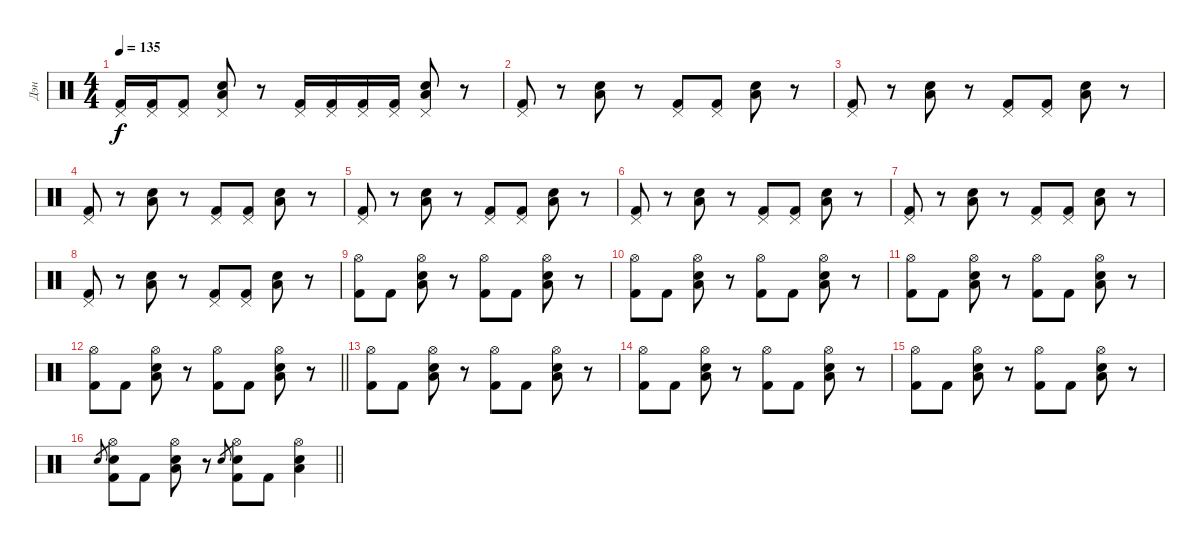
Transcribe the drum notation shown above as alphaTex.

\track ("Дэн" "Дэн") {instrument percussion}
\staff {score}
\articulation defaults
\ts (4 4)
\tempo 135
\clef neutral
\ks c
("Pedal Hi-Hat (hit)" "Kick (hit) 2").16{dy f} ("Pedal Hi-Hat (hit)" "Kick (hit) 2").16 ("Pedal Hi-Hat (hit)" "Kick (hit) 2").8 ("Snare (hit) 2" "Low Tom (hit)" "Pedal Hi-Hat (hit)").8 r.8 ("Pedal Hi-Hat (hit)" "Kick (hit) 2").16 ("Pedal Hi-Hat (hit)" "Kick (hit) 2").16 ("Pedal Hi-Hat (hit)" "Kick (hit) 2").16 ("Pedal Hi-Hat (hit)" "Kick (hit) 2").16 ("Snare (hit) 2" "Low Tom (hit)" "Pedal Hi-Hat (hit)").8 r.8 |
("Pedal Hi-Hat (hit)" "Kick (hit) 2").8 r.8 ("Snare (hit) 2" "Low Tom (hit)").8 r.8 ("Pedal Hi-Hat (hit)" "Kick (hit) 2").8 ("Pedal Hi-Hat (hit)" "Kick (hit) 2").8 ("Snare (hit) 2" "Low Tom (hit)").8 r.8 |
("Pedal Hi-Hat (hit)" "Kick (hit) 2").8 r.8 ("Snare (hit) 2" "Low Tom (hit)").8 r.8 ("Pedal Hi-Hat (hit)" "Kick (hit) 2").8 ("Pedal Hi-Hat (hit)" "Kick (hit) 2").8 ("Snare (hit) 2" "Low Tom (hit)").8 r.8 |
("Pedal Hi-Hat (hit)" "Kick (hit) 2").8 r.8 ("Snare (hit) 2" "Low Tom (hit)").8 r.8 ("Pedal Hi-Hat (hit)" "Kick (hit) 2").8 ("Pedal Hi-Hat (hit)" "Kick (hit) 2").8 ("Snare (hit) 2" "Low Tom (hit)").8 r.8 |
("Pedal Hi-Hat (hit)" "Kick (hit) 2").8 r.8 ("Snare (hit) 2" "Low Tom (hit)").8 r.8 ("Pedal Hi-Hat (hit)" "Kick (hit) 2").8 ("Pedal Hi-Hat (hit)" "Kick (hit) 2").8 ("Snare (hit) 2" "Low Tom (hit)").8 r.8 |
("Pedal Hi-Hat (hit)" "Kick (hit) 2").8 r.8 ("Snare (hit) 2" "Low Tom (hit)").8 r.8 ("Pedal Hi-Hat (hit)" "Kick (hit) 2").8 ("Pedal Hi-Hat (hit)" "Kick (hit) 2").8 ("Snare (hit) 2" "Low Tom (hit)").8 r.8 |
("Pedal Hi-Hat (hit)" "Kick (hit) 2").8 r.8 ("Snare (hit) 2" "Low Tom (hit)").8 r.8 ("Pedal Hi-Hat (hit)" "Kick (hit) 2").8 ("Pedal Hi-Hat (hit)" "Kick (hit) 2").8 ("Snare (hit) 2" "Low Tom (hit)").8 r.8 |
("Pedal Hi-Hat (hit)" "Kick (hit) 2").8 r.8 ("Snare (hit) 2" "Low Tom (hit)").8 r.8 ("Pedal Hi-Hat (hit)" "Kick (hit) 2").8 ("Pedal Hi-Hat (hit)" "Kick (hit) 2").8 ("Snare (hit) 2" "Low Tom (hit)").8 r.8 |
("Hi-Hat (open)" "Kick (hit) 2").8 "Kick (hit) 2".8 ("Snare (hit) 2" "Low Tom (hit)" "Hi-Hat (open)").8 r.8 ("Hi-Hat (open)" "Kick (hit) 2").8 "Kick (hit) 2".8 ("Snare (hit) 2" "Low Tom (hit)" "Hi-Hat (open)").8 r.8 |
("Hi-Hat (open)" "Kick (hit) 2").8 "Kick (hit) 2".8 ("Snare (hit) 2" "Low Tom (hit)" "Hi-Hat (open)").8 r.8 ("Hi-Hat (open)" "Kick (hit) 2").8 "Kick (hit) 2".8 ("Snare (hit) 2" "Low Tom (hit)" "Hi-Hat (open)").8 r.8 |
("Hi-Hat (open)" "Kick (hit) 2").8 "Kick (hit) 2".8 ("Snare (hit) 2" "Low Tom (hit)" "Hi-Hat (open)").8 r.8 ("Hi-Hat (open)" "Kick (hit) 2").8 "Kick (hit) 2".8 ("Snare (hit) 2" "Low Tom (hit)" "Hi-Hat (open)").8 r.8 |
\barLineRight lightlight
("Hi-Hat (open)" "Kick (hit) 2").8 "Kick (hit) 2".8 ("Snare (hit) 2" "Low Tom (hit)" "Hi-Hat (open)").8 r.8 ("Hi-Hat (open)" "Kick (hit) 2").8 "Kick (hit) 2".8 ("Snare (hit) 2" "Low Tom (hit)" "Hi-Hat (open)").8 r.8 |
("Hi-Hat (open)" "Kick (hit) 2").8 "Kick (hit) 2".8 ("Snare (hit) 2" "Low Tom (hit)" "Hi-Hat (open)").8 r.8 ("Hi-Hat (open)" "Kick (hit) 2").8 "Kick (hit) 2".8 ("Snare (hit) 2" "Low Tom (hit)" "Hi-Hat (open)").8 r.8 |
("Hi-Hat (open)" "Kick (hit) 2").8 "Kick (hit) 2".8 ("Snare (hit) 2" "Low Tom (hit)" "Hi-Hat (open)").8 r.8 ("Hi-Hat (open)" "Kick (hit) 2").8 "Kick (hit) 2".8 ("Snare (hit) 2" "Low Tom (hit)" "Hi-Hat (open)").8 r.8 |
("Hi-Hat (open)" "Kick (hit) 2").8 "Kick (hit) 2".8 ("Snare (hit) 2" "Low Tom (hit)" "Hi-Hat (open)").8 r.8 ("Hi-Hat (open)" "Kick (hit) 2").8 "Kick (hit) 2".8 ("Snare (hit) 2" "Low Tom (hit)" "Hi-Hat (open)").8 r.8 |
\barLineRight lightlight "Snare (hit) 2".8{gr}
("Snare (hit) 2" "Hi-Hat (open)" "Kick (hit) 2").8 "Kick (hit) 2".8 ("Snare (hit) 2" "Low Tom (hit)" "Hi-Hat (open)").8 r.8 "Snare (hit) 2".8{gr} ("Snare (hit) 2" "Hi-Hat (open)" "Kick (hit) 2").8 "Kick (hit) 2".8 ("Snare (hit) 2" "Low Tom (hit)" "Hi-Hat (open)").4
